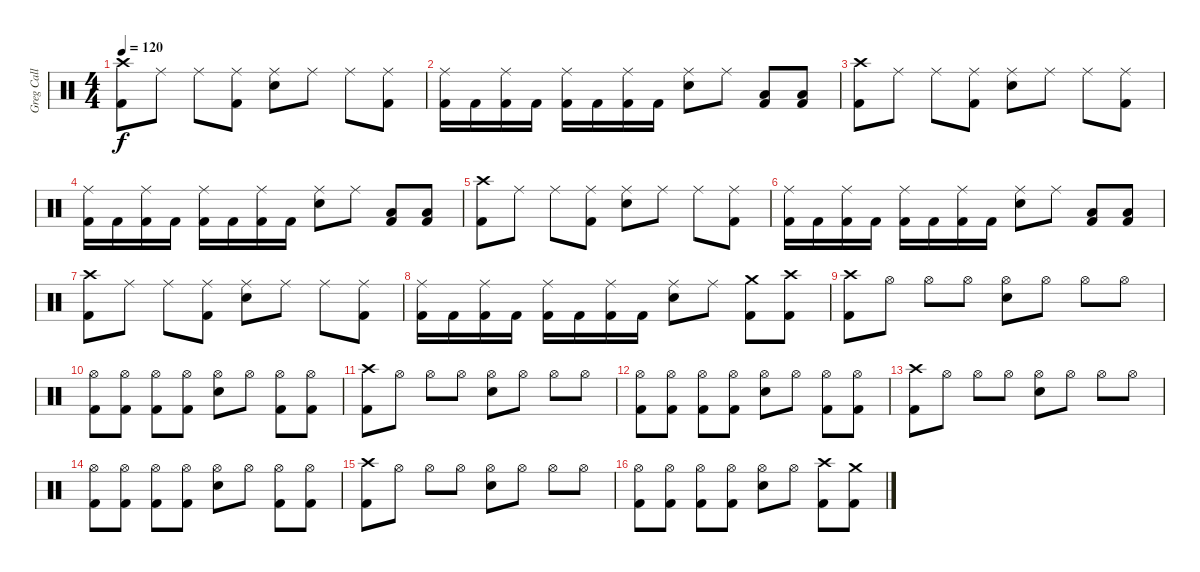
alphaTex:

\track ("Greg Call" "Greg Call") {instrument percussion}
\staff {score}
\articulation defaults
\ts (4 4)
\tempo 120
\clef neutral
\ks c
("Crash high (hit)" "Kick (hit) 2").8{dy f} "Ride (middle)".8 "Ride (middle)".8 ("Ride (middle)" "Kick (hit) 2").8 ("Ride (middle)" "Snare (hit) 2").8 "Ride (middle)".8 "Ride (middle)".8 ("Ride (middle)" "Kick (hit) 2").8 |
("Ride (middle)" "Kick (hit) 2").16 "Kick (hit) 2".16 ("Ride (middle)" "Kick (hit) 2").16 "Kick (hit) 2".16 ("Ride (middle)" "Kick (hit) 2").16 "Kick (hit) 2".16 ("Ride (middle)" "Kick (hit) 2").16 "Kick (hit) 2".16 ("Ride (middle)" "Snare (hit) 2").8 "Ride (middle)".8 ("Low Floor Tom (hit)" "Kick (hit) 2").8 ("Low Floor Tom (hit)" "Kick (hit) 2").8 |
("Crash high (hit)" "Kick (hit) 2").8 "Ride (middle)".8 "Ride (middle)".8 ("Ride (middle)" "Kick (hit) 2").8 ("Ride (middle)" "Snare (hit) 2").8 "Ride (middle)".8 "Ride (middle)".8 ("Ride (middle)" "Kick (hit) 2").8 |
("Ride (middle)" "Kick (hit) 2").16 "Kick (hit) 2".16 ("Ride (middle)" "Kick (hit) 2").16 "Kick (hit) 2".16 ("Ride (middle)" "Kick (hit) 2").16 "Kick (hit) 2".16 ("Ride (middle)" "Kick (hit) 2").16 "Kick (hit) 2".16 ("Ride (middle)" "Snare (hit) 2").8 "Ride (middle)".8 ("Low Floor Tom (hit)" "Kick (hit) 2").8 ("Low Floor Tom (hit)" "Kick (hit) 2").8 |
("Crash high (hit)" "Kick (hit) 2").8 "Ride (middle)".8 "Ride (middle)".8 ("Ride (middle)" "Kick (hit) 2").8 ("Ride (middle)" "Snare (hit) 2").8 "Ride (middle)".8 "Ride (middle)".8 ("Ride (middle)" "Kick (hit) 2").8 |
("Ride (middle)" "Kick (hit) 2").16 "Kick (hit) 2".16 ("Ride (middle)" "Kick (hit) 2").16 "Kick (hit) 2".16 ("Ride (middle)" "Kick (hit) 2").16 "Kick (hit) 2".16 ("Ride (middle)" "Kick (hit) 2").16 "Kick (hit) 2".16 ("Ride (middle)" "Snare (hit) 2").8 "Ride (middle)".8 ("Low Floor Tom (hit)" "Kick (hit) 2").8 ("Low Floor Tom (hit)" "Kick (hit) 2").8 |
("Crash high (hit)" "Kick (hit) 2").8 "Ride (middle)".8 "Ride (middle)".8 ("Ride (middle)" "Kick (hit) 2").8 ("Ride (middle)" "Snare (hit) 2").8 "Ride (middle)".8 "Ride (middle)".8 ("Ride (middle)" "Kick (hit) 2").8 |
("Ride (middle)" "Kick (hit) 2").16 "Kick (hit) 2".16 ("Ride (middle)" "Kick (hit) 2").16 "Kick (hit) 2".16 ("Ride (middle)" "Kick (hit) 2").16 "Kick (hit) 2".16 ("Ride (middle)" "Kick (hit) 2").16 "Kick (hit) 2".16 ("Ride (middle)" "Snare (hit) 2").8 "Ride (middle)".8 ("Crash medium (hit)" "Kick (hit) 2").8 ("Crash high (hit)" "Kick (hit) 2").8 |
("Crash high (hit)" "Kick (hit) 2").8 "Hi-Hat (open)".8 "Hi-Hat (open)".8 "Hi-Hat (open)".8 ("Hi-Hat (open)" "Snare (hit) 2").8 "Hi-Hat (open)".8 "Hi-Hat (open)".8 "Hi-Hat (open)".8 |
("Hi-Hat (open)" "Kick (hit) 2").8 ("Hi-Hat (open)" "Kick (hit) 2").8 ("Hi-Hat (open)" "Kick (hit) 2").8 ("Hi-Hat (open)" "Kick (hit) 2").8 ("Hi-Hat (open)" "Snare (hit) 2").8 "Hi-Hat (open)".8 ("Hi-Hat (open)" "Kick (hit) 2").8 ("Hi-Hat (open)" "Kick (hit) 2").8 |
("Crash high (hit)" "Kick (hit) 2").8 "Hi-Hat (open)".8 "Hi-Hat (open)".8 "Hi-Hat (open)".8 ("Hi-Hat (open)" "Snare (hit) 2").8 "Hi-Hat (open)".8 "Hi-Hat (open)".8 "Hi-Hat (open)".8 |
("Hi-Hat (open)" "Kick (hit) 2").8 ("Hi-Hat (open)" "Kick (hit) 2").8 ("Hi-Hat (open)" "Kick (hit) 2").8 ("Hi-Hat (open)" "Kick (hit) 2").8 ("Hi-Hat (open)" "Snare (hit) 2").8 "Hi-Hat (open)".8 ("Hi-Hat (open)" "Kick (hit) 2").8 ("Hi-Hat (open)" "Kick (hit) 2").8 |
("Crash high (hit)" "Kick (hit) 2").8 "Hi-Hat (open)".8 "Hi-Hat (open)".8 "Hi-Hat (open)".8 ("Hi-Hat (open)" "Snare (hit) 2").8 "Hi-Hat (open)".8 "Hi-Hat (open)".8 "Hi-Hat (open)".8 |
("Hi-Hat (open)" "Kick (hit) 2").8 ("Hi-Hat (open)" "Kick (hit) 2").8 ("Hi-Hat (open)" "Kick (hit) 2").8 ("Hi-Hat (open)" "Kick (hit) 2").8 ("Hi-Hat (open)" "Snare (hit) 2").8 "Hi-Hat (open)".8 ("Hi-Hat (open)" "Kick (hit) 2").8 ("Hi-Hat (open)" "Kick (hit) 2").8 |
("Crash high (hit)" "Kick (hit) 2").8 "Hi-Hat (open)".8 "Hi-Hat (open)".8 "Hi-Hat (open)".8 ("Hi-Hat (open)" "Snare (hit) 2").8 "Hi-Hat (open)".8 "Hi-Hat (open)".8 "Hi-Hat (open)".8 |
("Hi-Hat (open)" "Kick (hit) 2").8 ("Hi-Hat (open)" "Kick (hit) 2").8 ("Hi-Hat (open)" "Kick (hit) 2").8 ("Hi-Hat (open)" "Kick (hit) 2").8 ("Hi-Hat (open)" "Snare (hit) 2").8 "Hi-Hat (open)".8 ("Crash high (hit)" "Kick (hit) 2").8 ("Crash medium (hit)" "Kick (hit) 2").8
